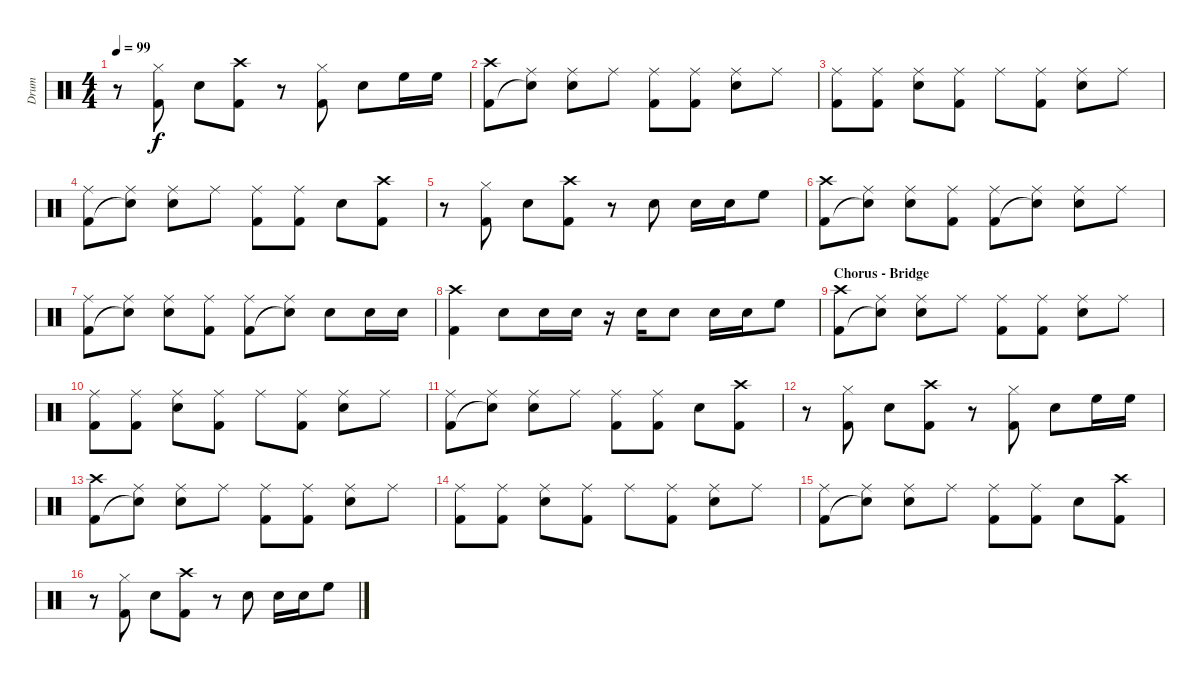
\track ("Drum" "Drum") {instrument percussion}
\staff {score}
\articulation defaults
\ts (4 4)
\tempo 99
\clef neutral
\ks c
r.8{dy f} ("Hi-Hat (closed)" "Kick (hit) 2").8 "Snare (hit) 2".8 ("Crash high (hit)" "Kick (hit) 2").8 r.8 ("Hi-Hat (closed)" "Kick (hit) 2").8 "Snare (hit) 2".8 "High Floor Tom (hit)".16 "High Floor Tom (hit)".16 |
("Crash high (hit)" "Kick (hit) 2").8 ("Ride (middle)" "Snare (hit)"{t}).8 ("Ride (middle)" "Snare (hit) 2").8 "Ride (middle)".8 ("Ride (middle)" "Kick (hit) 2").8 ("Ride (middle)" "Kick (hit) 2").8 ("Ride (middle)" "Snare (hit) 2").8 "Ride (middle)".8 |
("Ride (middle)" "Kick (hit) 2").8 ("Ride (middle)" "Kick (hit) 2").8 ("Ride (middle)" "Snare (hit) 2").8 ("Ride (middle)" "Kick (hit) 2").8 "Ride (middle)".8 ("Ride (middle)" "Kick (hit) 2").8 ("Ride (middle)" "Snare (hit) 2").8 "Ride (middle)".8 |
("Ride (middle)" "Kick (hit) 2").8 ("Ride (middle)" "Snare (hit)"{t}).8 ("Ride (middle)" "Snare (hit) 2").8 "Ride (middle)".8 ("Ride (middle)" "Kick (hit) 2").8 ("Ride (middle)" "Kick (hit) 2").8 "Snare (hit) 2".8 ("Crash high (hit)" "Kick (hit) 2").8 |
r.8 ("Hi-Hat (closed)" "Kick (hit) 2").8 "Snare (hit) 2".8 ("Crash high (hit)" "Kick (hit) 2").8 r.8 "Snare (hit) 2".8 "Snare (hit) 2".16 "Snare (hit) 2".16 "High Floor Tom (hit)".8 |
("Crash high (hit)" "Kick (hit) 2").8 ("Ride (middle)" "Snare (hit)"{t}).8 ("Ride (middle)" "Snare (hit) 2").8 ("Ride (middle)" "Kick (hit) 2").8 ("Ride (middle)" "Kick (hit) 2").8 ("Ride (middle)" "Snare (hit)"{t}).8 ("Ride (middle)" "Snare (hit) 2").8 "Ride (middle)".8 |
("Ride (middle)" "Kick (hit) 2").8 ("Ride (middle)" "Snare (hit)"{t}).8 ("Ride (middle)" "Snare (hit) 2").8 ("Ride (middle)" "Kick (hit) 2").8 ("Ride (middle)" "Kick (hit) 2").8 ("Ride (middle)" "Snare (hit)"{t}).8 "Snare (hit) 2".8 "Snare (hit) 2".16 "Snare (hit) 2".16 |
("Crash high (hit)" "Kick (hit) 2").4 "Snare (hit) 2".8 "Snare (hit) 2".16 "Snare (hit) 2".16 r.16 "Snare (hit) 2".16 "Snare (hit) 2".8 "Snare (hit) 2".16 "Snare (hit) 2".16 "High Floor Tom (hit)".8 |
\section ("" "Chorus - Bridge")
("Crash high (hit)" "Kick (hit) 2").8 ("Ride (middle)" "Snare (hit)"{t}).8 ("Ride (middle)" "Snare (hit) 2").8 "Ride (middle)".8 ("Ride (middle)" "Kick (hit) 2").8 ("Ride (middle)" "Kick (hit) 2").8 ("Ride (middle)" "Snare (hit) 2").8 "Ride (middle)".8 |
("Ride (middle)" "Kick (hit) 2").8 ("Ride (middle)" "Kick (hit) 2").8 ("Ride (middle)" "Snare (hit) 2").8 ("Ride (middle)" "Kick (hit) 2").8 "Ride (middle)".8 ("Ride (middle)" "Kick (hit) 2").8 ("Ride (middle)" "Snare (hit) 2").8 "Ride (middle)".8 |
("Ride (middle)" "Kick (hit) 2").8 ("Ride (middle)" "Snare (hit)"{t}).8 ("Ride (middle)" "Snare (hit) 2").8 "Ride (middle)".8 ("Ride (middle)" "Kick (hit) 2").8 ("Ride (middle)" "Kick (hit) 2").8 "Snare (hit) 2".8 ("Crash high (hit)" "Kick (hit) 2").8 |
r.8 ("Hi-Hat (closed)" "Kick (hit) 2").8 "Snare (hit) 2".8 ("Crash high (hit)" "Kick (hit) 2").8 r.8 ("Hi-Hat (closed)" "Kick (hit) 2").8 "Snare (hit) 2".8 "High Floor Tom (hit)".16 "High Floor Tom (hit)".16 |
("Crash high (hit)" "Kick (hit) 2").8 ("Ride (middle)" "Snare (hit)"{t}).8 ("Ride (middle)" "Snare (hit) 2").8 "Ride (middle)".8 ("Ride (middle)" "Kick (hit) 2").8 ("Ride (middle)" "Kick (hit) 2").8 ("Ride (middle)" "Snare (hit) 2").8 "Ride (middle)".8 |
("Ride (middle)" "Kick (hit) 2").8 ("Ride (middle)" "Kick (hit) 2").8 ("Ride (middle)" "Snare (hit) 2").8 ("Ride (middle)" "Kick (hit) 2").8 "Ride (middle)".8 ("Ride (middle)" "Kick (hit) 2").8 ("Ride (middle)" "Snare (hit) 2").8 "Ride (middle)".8 |
("Ride (middle)" "Kick (hit) 2").8 ("Ride (middle)" "Snare (hit)"{t}).8 ("Ride (middle)" "Snare (hit) 2").8 "Ride (middle)".8 ("Ride (middle)" "Kick (hit) 2").8 ("Ride (middle)" "Kick (hit) 2").8 "Snare (hit) 2".8 ("Crash high (hit)" "Kick (hit) 2").8 |
r.8 ("Hi-Hat (closed)" "Kick (hit) 2").8 "Snare (hit) 2".8 ("Crash high (hit)" "Kick (hit) 2").8 r.8 "Snare (hit) 2".8 "Snare (hit) 2".16 "Snare (hit) 2".16 "High Floor Tom (hit)".8
